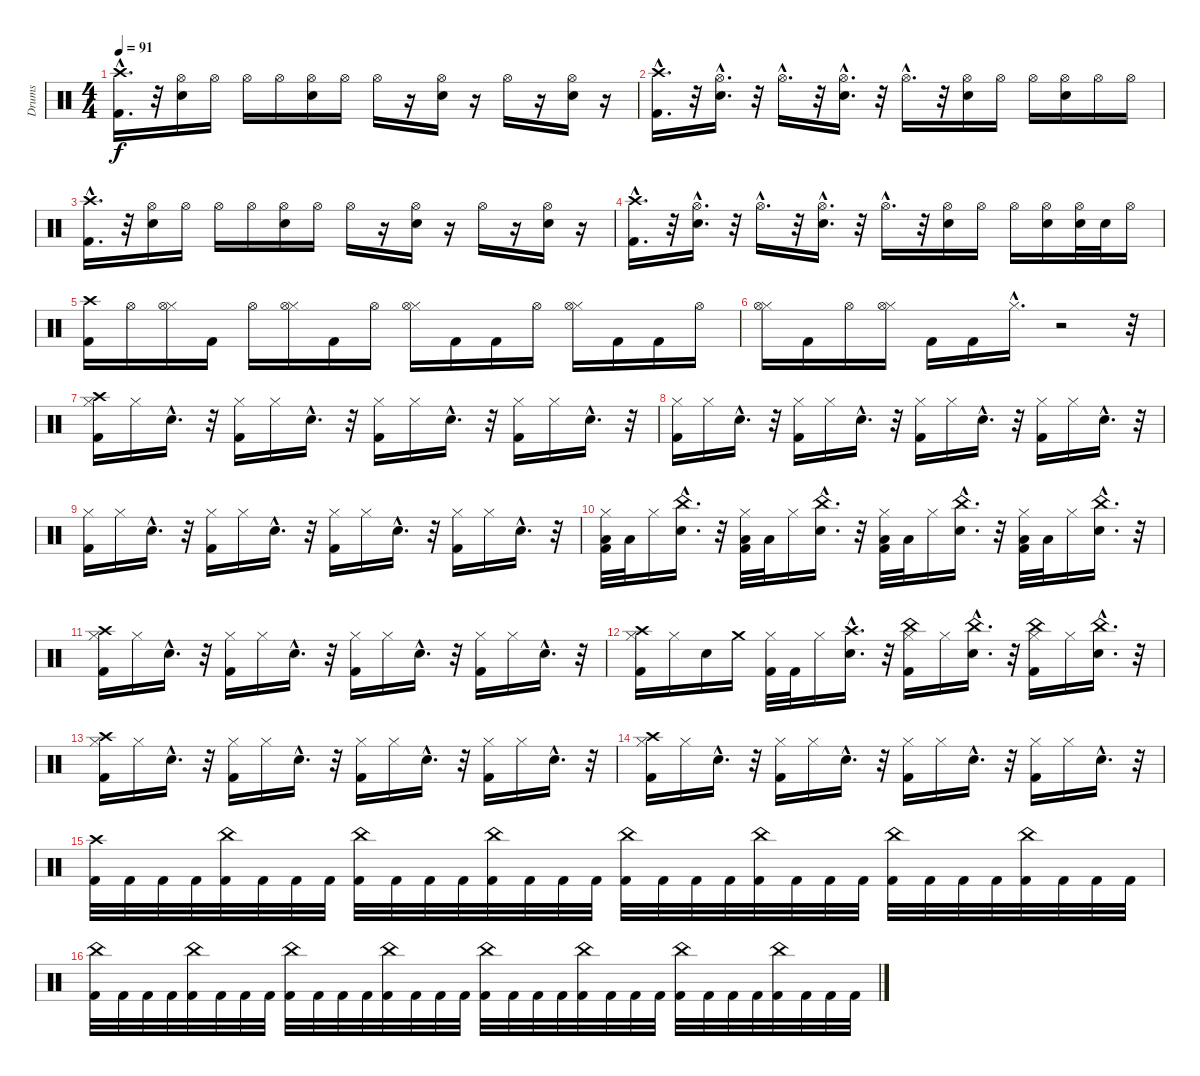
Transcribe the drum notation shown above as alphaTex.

\track ("Drums" "Drums") {instrument percussion}
\staff {score}
\articulation defaults
\ts (4 4)
\tempo 91
\clef neutral
\ks c
("Crash high (hit)"{hac} "Kick (hit) 2").16{d dy f} r.32 ("Snare (hit) 2" "Hi-Hat (open)").16 "Hi-Hat (open)".16 "Hi-Hat (open)".16 "Hi-Hat (open)".16 ("Snare (hit) 2" "Hi-Hat (open)").16 "Hi-Hat (open)".16 "Hi-Hat (open)".16 r.16 ("Snare (hit) 2" "Hi-Hat (open)").16 r.16 "Hi-Hat (open)".16 r.16 ("Snare (hit) 2" "Hi-Hat (open)").16 r.16 |
("Kick (hit) 2"{hac} "Crash high (hit)"{hac}).16{d} r.32 ("Snare (hit) 2"{hac} "Hi-Hat (open)"{hac}).16{d} r.32 "Hi-Hat (open)"{hac}.16{d} r.32 ("Snare (hit) 2"{hac} "Hi-Hat (open)"{hac}).16{d} r.32 "Hi-Hat (open)"{hac}.16{d} r.32 ("Snare (hit) 2" "Hi-Hat (open)").16 "Hi-Hat (open)".16 "Hi-Hat (open)".16 ("Snare (hit) 2" "Hi-Hat (open)").16 "Hi-Hat (open)".16 "Hi-Hat (open)".16 |
("Crash high (hit)"{hac} "Kick (hit) 2").16{d} r.32 ("Snare (hit) 2" "Hi-Hat (open)").16 "Hi-Hat (open)".16 "Hi-Hat (open)".16 "Hi-Hat (open)".16 ("Snare (hit) 2" "Hi-Hat (open)").16 "Hi-Hat (open)".16 "Hi-Hat (open)".16 r.16 ("Snare (hit) 2" "Hi-Hat (open)").16 r.16 "Hi-Hat (open)".16 r.16 ("Snare (hit) 2" "Hi-Hat (open)").16 r.16 |
("Kick (hit) 2"{hac} "Crash high (hit)"{hac}).16{d} r.32 ("Snare (hit) 2"{hac} "Hi-Hat (open)"{hac}).16{d} r.32 "Hi-Hat (open)"{hac}.16{d} r.32 ("Snare (hit) 2"{hac} "Hi-Hat (open)"{hac}).16{d} r.32 "Hi-Hat (open)"{hac}.16{d} r.32 ("Snare (hit) 2" "Hi-Hat (open)").16 "Hi-Hat (open)".16 "Hi-Hat (open)".16 ("Snare (hit) 2" "Hi-Hat (open)").16 ("Snare (hit) 2" "Hi-Hat (open)").32 "Snare (hit) 2".32 "Hi-Hat (open)".16 |
("Crash high (hit)" "Kick (hit) 2").16 "Hi-Hat (open)".16 ("Hi-Hat (closed)" "Hi-Hat (open)").16 "Kick (hit) 2".16 "Hi-Hat (open)".16 ("Hi-Hat (closed)" "Hi-Hat (open)").16 "Kick (hit) 2".16 "Hi-Hat (open)".16 ("Hi-Hat (closed)" "Hi-Hat (open)").16 "Kick (hit) 2".16 "Kick (hit) 2".16 "Hi-Hat (open)".16 ("Hi-Hat (closed)" "Hi-Hat (open)").16 "Kick (hit) 2".16 "Kick (hit) 2".16 "Hi-Hat (open)".16 |
("Hi-Hat (closed)" "Hi-Hat (open)").16 "Kick (hit) 2".16 "Hi-Hat (open)".16 ("Hi-Hat (closed)" "Hi-Hat (open)").16 "Kick (hit) 2".16 "Kick (hit) 2".16 "Hi-Hat (closed)"{hac}.16{d} r.2 r.32 |
("Crash high (hit)" "Kick (hit) 2" "Hi-Hat (closed)").16 "Hi-Hat (closed)".16 "Snare (hit) 2"{hac}.16{d} r.32 ("Kick (hit) 2" "Hi-Hat (closed)").16 "Hi-Hat (closed)".16 "Snare (hit) 2"{hac}.16{d} r.32 ("Kick (hit) 2" "Hi-Hat (closed)").16 "Hi-Hat (closed)".16 "Snare (hit) 2"{hac}.16{d} r.32 ("Kick (hit) 2" "Hi-Hat (closed)").16 "Hi-Hat (closed)".16 "Snare (hit) 2"{hac}.16{d} r.32 |
("Kick (hit) 2" "Hi-Hat (closed)").16 "Hi-Hat (closed)".16 "Snare (hit) 2"{hac}.16{d} r.32 ("Kick (hit) 2" "Hi-Hat (closed)").16 "Hi-Hat (closed)".16 "Snare (hit) 2"{hac}.16{d} r.32 ("Kick (hit) 2" "Hi-Hat (closed)").16 "Hi-Hat (closed)".16 "Snare (hit) 2"{hac}.16{d} r.32 ("Kick (hit) 2" "Hi-Hat (closed)").16 "Hi-Hat (closed)".16 "Snare (hit) 2"{hac}.16{d} r.32 |
("Kick (hit) 2" "Hi-Hat (closed)").16 "Hi-Hat (closed)".16 "Snare (hit) 2"{hac}.16{d} r.32 ("Kick (hit) 2" "Hi-Hat (closed)").16 "Hi-Hat (closed)".16 "Snare (hit) 2"{hac}.16{d} r.32 ("Kick (hit) 2" "Hi-Hat (closed)").16 "Hi-Hat (closed)".16 "Snare (hit) 2"{hac}.16{d} r.32 ("Kick (hit) 2" "Hi-Hat (closed)").16 "Hi-Hat (closed)".16 "Snare (hit) 2"{hac}.16{d} r.32 |
("Low Floor Tom (hit)" "Kick (hit) 2" "Hi-Hat (closed)").32 "Low Floor Tom (hit)".32 "Hi-Hat (closed)".16 ("Snare (hit) 2"{hac} "China (hit)"{hac}).16{d} r.32 ("Low Floor Tom (hit)" "Kick (hit) 2" "Hi-Hat (closed)").32 "Low Floor Tom (hit)".32 "Hi-Hat (closed)".16 ("China (hit)"{hac} "Snare (hit) 2"{hac}).16{d} r.32 ("Low Floor Tom (hit)" "Kick (hit) 2" "Hi-Hat (closed)").32 "Low Floor Tom (hit)".32 "Hi-Hat (closed)".16 ("China (hit)"{hac} "Snare (hit) 2"{hac}).16{d} r.32 ("Low Floor Tom (hit)" "Kick (hit) 2" "Hi-Hat (closed)").32 "Low Floor Tom (hit)".32 "Hi-Hat (closed)".16 ("China (hit)"{hac} "Snare (hit) 2"{hac}).16{d} r.32 |
("Crash high (hit)" "Kick (hit) 2" "Hi-Hat (closed)").16 "Hi-Hat (closed)".16 "Snare (hit) 2"{hac}.16{d} r.32 ("Kick (hit) 2" "Hi-Hat (closed)").16 "Hi-Hat (closed)".16 "Snare (hit) 2"{hac}.16{d} r.32 ("Kick (hit) 2" "Hi-Hat (closed)").16 "Hi-Hat (closed)".16 "Snare (hit) 2"{hac}.16{d} r.32 ("Kick (hit) 2" "Hi-Hat (closed)").16 "Hi-Hat (closed)".16 "Snare (hit) 2"{hac}.16{d} r.32 |
("Crash high (hit)" "Kick (hit) 2" "Hi-Hat (closed)").16 "Hi-Hat (closed)".16 "Snare (hit) 2".16 "Crash medium (hit)".16 ("Hi-Hat (closed)" "Kick (hit) 2").32 "Kick (hit) 2".32 "Hi-Hat (closed)".16 ("Crash high (hit)"{hac} "Snare (hit) 2"{hac}).16{d} r.32 ("China (hit)" "Kick (hit) 2" "Hi-Hat (closed)").16 "Hi-Hat (closed)".16 ("China (hit)"{hac} "Snare (hit) 2"{hac}).16{d} r.32 ("China (hit)" "Kick (hit) 2" "Hi-Hat (closed)").16 "Hi-Hat (closed)".16 ("China (hit)"{hac} "Snare (hit) 2"{hac}).16{d} r.32 |
("Crash high (hit)" "Kick (hit) 2" "Hi-Hat (closed)").16 "Hi-Hat (closed)".16 "Snare (hit) 2"{hac}.16{d} r.32 ("Kick (hit) 2" "Hi-Hat (closed)").16 "Hi-Hat (closed)".16 "Snare (hit) 2"{hac}.16{d} r.32 ("Kick (hit) 2" "Hi-Hat (closed)").16 "Hi-Hat (closed)".16 "Snare (hit) 2"{hac}.16{d} r.32 ("Kick (hit) 2" "Hi-Hat (closed)").16 "Hi-Hat (closed)".16 "Snare (hit) 2"{hac}.16{d} r.32 |
("Crash high (hit)" "Kick (hit) 2" "Hi-Hat (closed)").16 "Hi-Hat (closed)".16 "Snare (hit) 2"{hac}.16{d} r.32 ("Kick (hit) 2" "Hi-Hat (closed)").16 "Hi-Hat (closed)".16 "Snare (hit) 2"{hac}.16{d} r.32 ("Kick (hit) 2" "Hi-Hat (closed)").16 "Hi-Hat (closed)".16 "Snare (hit) 2"{hac}.16{d} r.32 ("Kick (hit) 2" "Hi-Hat (closed)").16 "Hi-Hat (closed)".16 "Snare (hit) 2"{hac}.16{d} r.32 |
("Crash high (hit)" "Kick (hit) 2").32 "Kick (hit) 2".32 "Kick (hit) 2".32 "Kick (hit) 2".32 ("Kick (hit) 2" "China (hit)").32 "Kick (hit) 2".32 "Kick (hit) 2".32 "Kick (hit) 2".32 ("Kick (hit) 2" "China (hit)").32 "Kick (hit) 2".32 "Kick (hit) 2".32 "Kick (hit) 2".32 ("Kick (hit) 2" "China (hit)").32 "Kick (hit) 2".32 "Kick (hit) 2".32 "Kick (hit) 2".32 ("Kick (hit) 2" "China (hit)").32 "Kick (hit) 2".32 "Kick (hit) 2".32 "Kick (hit) 2".32 ("Kick (hit) 2" "China (hit)").32 "Kick (hit) 2".32 "Kick (hit) 2".32 "Kick (hit) 2".32 ("Kick (hit) 2" "China (hit)").32 "Kick (hit) 2".32 "Kick (hit) 2".32 "Kick (hit) 2".32 ("Kick (hit) 2" "China (hit)").32 "Kick (hit) 2".32 "Kick (hit) 2".32 "Kick (hit) 2".32 |
("Kick (hit) 2" "China (hit)").32 "Kick (hit) 2".32 "Kick (hit) 2".32 "Kick (hit) 2".32 ("Kick (hit) 2" "China (hit)").32 "Kick (hit) 2".32 "Kick (hit) 2".32 "Kick (hit) 2".32 ("Kick (hit) 2" "China (hit)").32 "Kick (hit) 2".32 "Kick (hit) 2".32 "Kick (hit) 2".32 ("Kick (hit) 2" "China (hit)").32 "Kick (hit) 2".32 "Kick (hit) 2".32 "Kick (hit) 2".32 ("Kick (hit) 2" "China (hit)").32 "Kick (hit) 2".32 "Kick (hit) 2".32 "Kick (hit) 2".32 ("Kick (hit) 2" "China (hit)").32 "Kick (hit) 2".32 "Kick (hit) 2".32 "Kick (hit) 2".32 ("Kick (hit) 2" "China (hit)").32 "Kick (hit) 2".32 "Kick (hit) 2".32 "Kick (hit) 2".32 ("Kick (hit) 2" "China (hit)").32 "Kick (hit) 2".32 "Kick (hit) 2".32 "Kick (hit) 2".32
